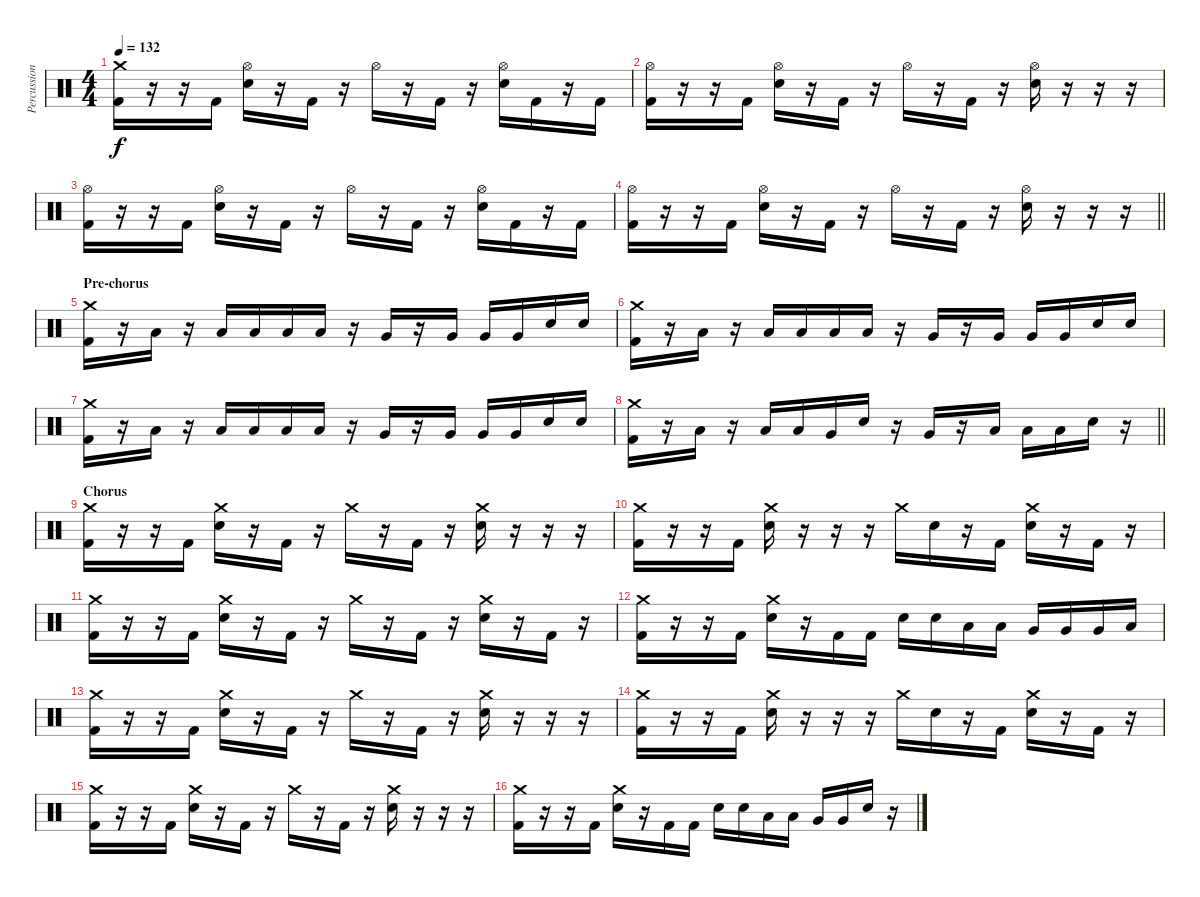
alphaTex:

\track ("Percussion" "Percussion") {instrument percussion}
\staff {score}
\articulation defaults
\ts (4 4)
\tempo 132
\clef neutral
\ks c
("Crash medium (hit)" "Kick (hit) 2").16{dy f} r.16 r.16 "Kick (hit) 2".16 ("Hi-Hat (open)" "Electric Snare (hit)").16 r.16 "Kick (hit) 2".16 r.16 "Hi-Hat (open)".16 r.16 "Kick (hit) 2".16 r.16 ("Hi-Hat (open)" "Electric Snare (hit)").16 "Kick (hit) 2".16 r.16 "Kick (hit) 2".16 |
("Hi-Hat (open)" "Kick (hit) 2").16 r.16 r.16 "Kick (hit) 2".16 ("Hi-Hat (open)" "Electric Snare (hit)").16 r.16 "Kick (hit) 2".16 r.16 "Hi-Hat (open)".16 r.16 "Kick (hit) 2".16 r.16 ("Hi-Hat (open)" "Electric Snare (hit)").16 r.16 r.16 r.16 |
("Hi-Hat (open)" "Kick (hit) 2").16 r.16 r.16 "Kick (hit) 2".16 ("Hi-Hat (open)" "Electric Snare (hit)").16 r.16 "Kick (hit) 2".16 r.16 "Hi-Hat (open)".16 r.16 "Kick (hit) 2".16 r.16 ("Hi-Hat (open)" "Electric Snare (hit)").16 "Kick (hit) 2".16 r.16 "Kick (hit) 2".16 |
\barLineRight lightlight
("Hi-Hat (open)" "Kick (hit) 2").16 r.16 r.16 "Kick (hit) 2".16 ("Hi-Hat (open)" "Electric Snare (hit)").16 r.16 "Kick (hit) 2".16 r.16 "Hi-Hat (open)".16 r.16 "Kick (hit) 2".16 r.16 ("Hi-Hat (open)" "Electric Snare (hit)").16 r.16 r.16 r.16 |
\section ("" "Pre-chorus")
("Crash medium (hit)" "Kick (hit) 2").16 r.16 "Low Tom (hit)".16 r.16 "Low Tom (hit)".16 "Low Tom (hit)".16 "Low Tom (hit)".16 "Low Tom (hit)".16 r.16 "Very Low Tom (hit)".16 r.16 "Very Low Tom (hit)".16 "Very Low Tom (hit)".16 "Very Low Tom (hit)".16 "Electric Snare (hit)".16 "Electric Snare (hit)".16 |
("Crash medium (hit)" "Kick (hit) 2").16 r.16 "Low Tom (hit)".16 r.16 "Low Tom (hit)".16 "Low Tom (hit)".16 "Low Tom (hit)".16 "Low Tom (hit)".16 r.16 "Very Low Tom (hit)".16 r.16 "Very Low Tom (hit)".16 "Very Low Tom (hit)".16 "Very Low Tom (hit)".16 "Electric Snare (hit)".16 "Electric Snare (hit)".16 |
("Crash medium (hit)" "Kick (hit) 2").16 r.16 "Low Tom (hit)".16 r.16 "Low Tom (hit)".16 "Low Tom (hit)".16 "Low Tom (hit)".16 "Low Tom (hit)".16 r.16 "Very Low Tom (hit)".16 r.16 "Very Low Tom (hit)".16 "Very Low Tom (hit)".16 "Very Low Tom (hit)".16 "Electric Snare (hit)".16 "Electric Snare (hit)".16 |
\barLineRight lightlight
("Crash medium (hit)" "Kick (hit) 2").16 r.16 "Low Tom (hit)".16 r.16 "Low Tom (hit)".16 "Low Tom (hit)".16 "Very Low Tom (hit)".16 "Electric Snare (hit)".16 r.16 "Very Low Tom (hit)".16 r.16 "Low Tom (hit)".16 "Low Tom (hit)".16 "Low Tom (hit)".16 "Electric Snare (hit)".16 r.16 |
\section ("" "Chorus")
("Crash medium (hit)" "Kick (hit) 2").16 r.16 r.16 "Kick (hit) 2".16 ("Crash medium (hit)" "Electric Snare (hit)").16 r.16 "Kick (hit) 2".16 r.16 "Crash medium (hit)".16 r.16 "Kick (hit) 2".16 r.16 ("Crash medium (hit)" "Electric Snare (hit)").16 r.16 r.16 r.16 |
("Crash medium (hit)" "Kick (hit) 2").16 r.16 r.16 "Kick (hit) 2".16 ("Crash medium (hit)" "Electric Snare (hit)").16 r.16 r.16 r.16 "Crash medium (hit)".16 "Electric Snare (hit)".16 r.16 "Kick (hit) 2".16 ("Crash medium (hit)" "Electric Snare (hit)").16 r.16 "Kick (hit) 2".16 r.16 |
("Crash medium (hit)" "Kick (hit) 2").16 r.16 r.16 "Kick (hit) 2".16 ("Crash medium (hit)" "Electric Snare (hit)").16 r.16 "Kick (hit) 2".16 r.16 "Crash medium (hit)".16 r.16 "Kick (hit) 2".16 r.16 ("Crash medium (hit)" "Electric Snare (hit)").16 r.16 "Kick (hit) 2".16 r.16 |
("Crash medium (hit)" "Kick (hit) 2").16 r.16 r.16 "Kick (hit) 2".16 ("Crash medium (hit)" "Electric Snare (hit)").16 r.16 "Kick (hit) 2".16 "Kick (hit) 2".16 "Electric Snare (hit)".16 "Electric Snare (hit)".16 "Low Tom (hit)".16 "Low Tom (hit)".16 "Very Low Tom (hit)".16 "Very Low Tom (hit)".16 "Very Low Tom (hit)".16 "Low Tom (hit)".16 |
("Crash medium (hit)" "Kick (hit) 2").16 r.16 r.16 "Kick (hit) 2".16 ("Crash medium (hit)" "Electric Snare (hit)").16 r.16 "Kick (hit) 2".16 r.16 "Crash medium (hit)".16 r.16 "Kick (hit) 2".16 r.16 ("Crash medium (hit)" "Electric Snare (hit)").16 r.16 r.16 r.16 |
("Crash medium (hit)" "Kick (hit) 2").16 r.16 r.16 "Kick (hit) 2".16 ("Crash medium (hit)" "Electric Snare (hit)").16 r.16 r.16 r.16 "Crash medium (hit)".16 "Electric Snare (hit)".16 r.16 "Kick (hit) 2".16 ("Crash medium (hit)" "Electric Snare (hit)").16 r.16 "Kick (hit) 2".16 r.16 |
("Crash medium (hit)" "Kick (hit) 2").16 r.16 r.16 "Kick (hit) 2".16 ("Crash medium (hit)" "Electric Snare (hit)").16 r.16 "Kick (hit) 2".16 r.16 "Crash medium (hit)".16 r.16 "Kick (hit) 2".16 r.16 ("Crash medium (hit)" "Electric Snare (hit)").16 r.16 r.16 r.16 |
("Crash medium (hit)" "Kick (hit) 2").16 r.16 r.16 "Kick (hit) 2".16 ("Crash medium (hit)" "Electric Snare (hit)").16 r.16 "Kick (hit) 2".16 "Kick (hit) 2".16 "Electric Snare (hit)".16 "Electric Snare (hit)".16 "Low Tom (hit)".16 "Low Tom (hit)".16 "Very Low Tom (hit)".16 "Very Low Tom (hit)".16 "Electric Snare (hit)".16 r.16
